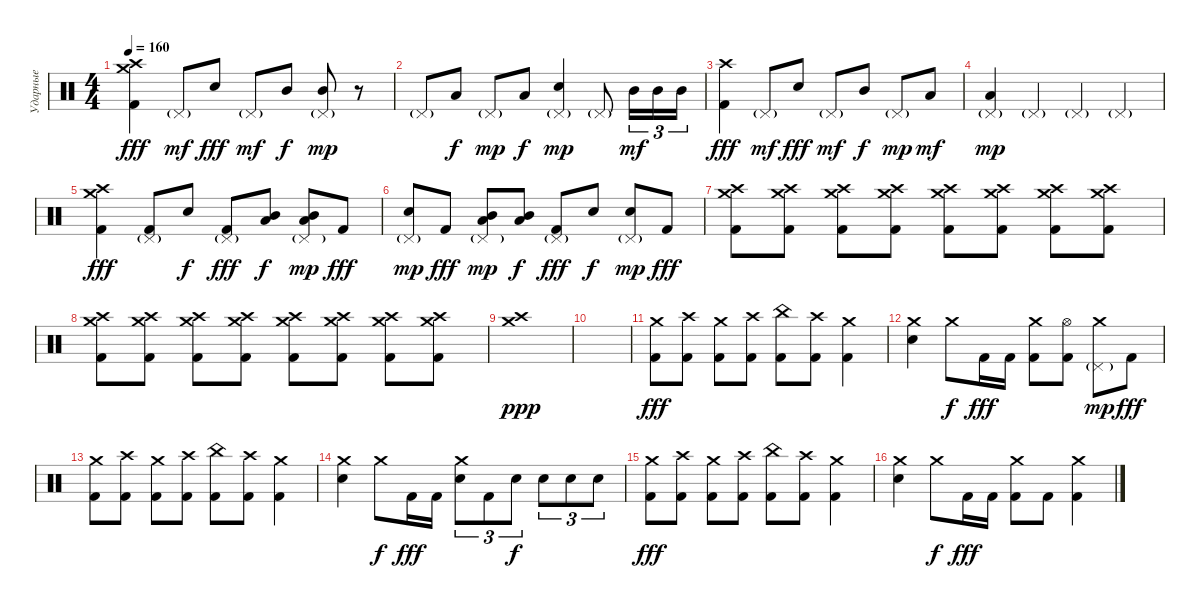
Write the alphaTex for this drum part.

\track ("Ударные" "Ударные") {instrument percussion}
\staff {score}
\articulation defaults
\ts (4 4)
\tempo 160
\clef neutral
\ks c
("Crash high (hit)" "Crash medium (hit)" "Kick (hit) 2").4{dy fff} "Pedal Hi-Hat (hit)"{g}.8{dy mf} "Electric Snare (hit)".8{dy fff} "Pedal Hi-Hat (hit)"{g}.8{dy mf} "Mid Tom (hit)".8{dy f} ("Mid Tom (hit)" "Pedal Hi-Hat (hit)"{g}).8{dy mp} r.8 |
"Pedal Hi-Hat (hit)"{g}.8 "Low Tom (hit)".8{dy f} "Pedal Hi-Hat (hit)"{g}.8{dy mp} "Low Floor Tom (hit)".8{dy f} ("Electric Snare (hit)" "Pedal Hi-Hat (hit)"{g}).4{dy mp} "Pedal Hi-Hat (hit)"{g}.8 "Mid Tom (hit)".16{tu (3 2) dy mf} "Mid Tom (hit)".16{tu (3 2)} "Mid Tom (hit)".16{tu (3 2)} |
("Crash high (hit)" "Kick (hit) 2").4{dy fff} "Pedal Hi-Hat (hit)"{g}.8{dy mf} "Electric Snare (hit)".8{dy fff} "Pedal Hi-Hat (hit)"{g}.8{dy mf} "Mid Tom (hit)".8{dy f} "Pedal Hi-Hat (hit)"{g}.8{dy mp} "Low Tom (hit)".8{dy mf} |
("Low Floor Tom (hit)" "Pedal Hi-Hat (hit)"{g}).4{dy mp} "Pedal Hi-Hat (hit)"{g}.4 "Pedal Hi-Hat (hit)"{g}.4 "Pedal Hi-Hat (hit)"{g}.4 |
("Crash high (hit)" "Crash medium (hit)" "Kick (hit) 2").4{dy fff} ("Pedal Hi-Hat (hit)"{g} "Kick (hit) 2").8 "Electric Snare (hit)".8{dy f} ("Pedal Hi-Hat (hit)"{g} "Kick (hit) 2").8{dy fff} ("Mid Tom (hit)" "Low Tom (hit)").8{dy f} ("Mid Tom (hit)" "Low Tom (hit)" "Pedal Hi-Hat (hit)"{g}).8{dy mp} "Kick (hit) 2".8{dy fff} |
("Electric Snare (hit)" "Pedal Hi-Hat (hit)"{g}).8{dy mp} "Kick (hit) 2".8{dy fff} ("Mid Tom (hit)" "Low Tom (hit)" "Pedal Hi-Hat (hit)"{g}).8{dy mp} ("Mid Tom (hit)" "Low Tom (hit)").8{dy f} ("Pedal Hi-Hat (hit)"{g} "Kick (hit) 2").8{dy fff} "Electric Snare (hit)".8{dy f} ("Electric Snare (hit)" "Pedal Hi-Hat (hit)"{g}).8{dy mp} "Kick (hit) 2".8{dy fff} |
("Crash high (hit)" "Crash medium (hit)" "Kick (hit) 2").8 ("Crash high (hit)" "Crash medium (hit)" "Kick (hit) 2").8 ("Crash high (hit)" "Crash medium (hit)" "Kick (hit) 2").8 ("Crash high (hit)" "Crash medium (hit)" "Kick (hit) 2").8 ("Crash high (hit)" "Crash medium (hit)" "Kick (hit) 2").8 ("Crash high (hit)" "Crash medium (hit)" "Kick (hit) 2").8 ("Crash high (hit)" "Crash medium (hit)" "Kick (hit) 2").8 ("Crash high (hit)" "Crash medium (hit)" "Kick (hit) 2").8 |
("Crash high (hit)" "Crash medium (hit)" "Kick (hit) 2").8 ("Crash high (hit)" "Crash medium (hit)" "Kick (hit) 2").8 ("Crash high (hit)" "Crash medium (hit)" "Kick (hit) 2").8 ("Crash high (hit)" "Crash medium (hit)" "Kick (hit) 2").8 ("Crash high (hit)" "Crash medium (hit)" "Kick (hit) 2").8 ("Crash high (hit)" "Crash medium (hit)" "Kick (hit) 2").8 ("Crash high (hit)" "Crash medium (hit)" "Kick (hit) 2").8 ("Crash high (hit)" "Crash medium (hit)" "Kick (hit) 2").8 |
("Crash high (hit)" "Crash medium (hit)").1{dy ppp} |
|
("Crash medium (hit)" "Kick (hit) 2").8{dy fff} ("Crash high (hit)" "Kick (hit) 2").8 ("Crash medium (hit)" "Kick (hit) 2").8 ("Crash high (hit)" "Kick (hit) 2").8 ("China (hit)" "Kick (hit) 2").8 ("Crash high (hit)" "Kick (hit) 2").8 ("Crash medium (hit)" "Kick (hit) 2").4 |
("Crash medium (hit)" "Electric Snare (hit)").4 "Crash medium (hit)".8{dy f} "Kick (hit) 2".16{dy fff} "Kick (hit) 2".16 ("Crash medium (hit)" "Kick (hit) 2").8 ("Hi-Hat (open)" "Kick (hit) 2").8 ("Crash medium (hit)" "Pedal Hi-Hat (hit)"{g}).8{dy mp} "Kick (hit) 2".8{dy fff} |
("Crash medium (hit)" "Kick (hit) 2").8 ("Crash high (hit)" "Kick (hit) 2").8 ("Crash medium (hit)" "Kick (hit) 2").8 ("Crash high (hit)" "Kick (hit) 2").8 ("China (hit)" "Kick (hit) 2").8 ("Crash high (hit)" "Kick (hit) 2").8 ("Crash medium (hit)" "Kick (hit) 2").4 |
("Crash medium (hit)" "Electric Snare (hit)").4 "Crash medium (hit)".8{dy f} "Kick (hit) 2".16{dy fff} "Kick (hit) 2".16 ("Crash medium (hit)" "Electric Snare (hit)").8{tu (3 2)} "Kick (hit) 2".8{tu (3 2)} "Electric Snare (hit)".8{tu (3 2) dy f} "Electric Snare (hit)".8{tu (3 2)} "Electric Snare (hit)".8{tu (3 2)} "Electric Snare (hit)".8{tu (3 2)} |
("Crash medium (hit)" "Kick (hit) 2").8{dy fff} ("Crash high (hit)" "Kick (hit) 2").8 ("Crash medium (hit)" "Kick (hit) 2").8 ("Crash high (hit)" "Kick (hit) 2").8 ("China (hit)" "Kick (hit) 2").8 ("Crash high (hit)" "Kick (hit) 2").8 ("Crash medium (hit)" "Kick (hit) 2").4 |
("Crash medium (hit)" "Electric Snare (hit)").4 "Crash medium (hit)".8{dy f} "Kick (hit) 2".16{dy fff} "Kick (hit) 2".16 ("Crash medium (hit)" "Kick (hit) 2").8 "Kick (hit) 2".8 ("Crash medium (hit)" "Kick (hit) 2").4
